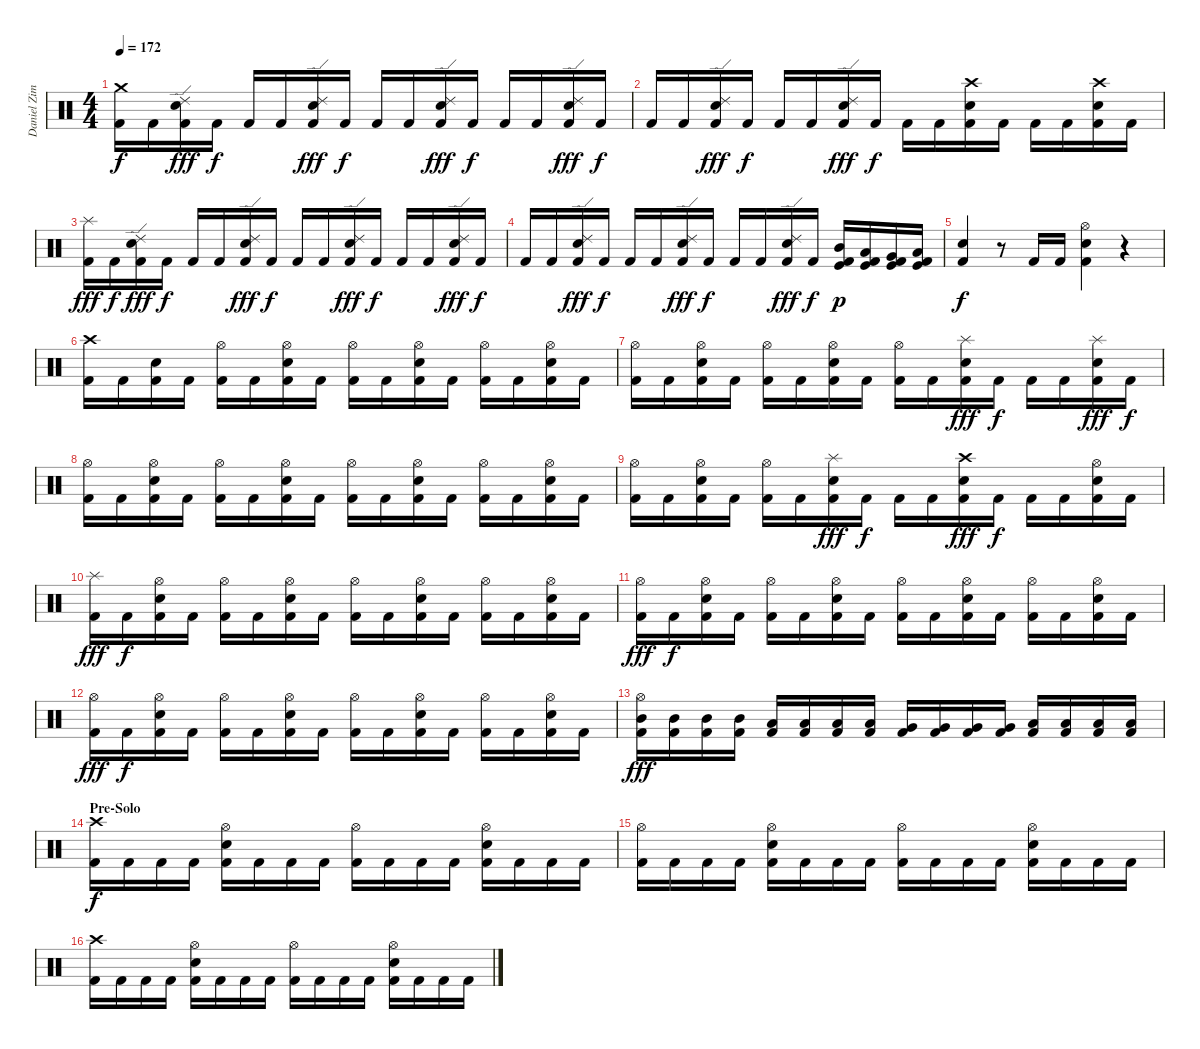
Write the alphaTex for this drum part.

\track ("Daniel Zimmermann - Drums" "Daniel Zim") {instrument percussion}
\staff {score}
\articulation defaults
\ts (4 4)
\tempo 172
\clef neutral
\ks c
("Kick (hit) 2" "Crash medium (hit)").16{dy f} "Kick (hit) 2".16 ("Kick (hit) 2" "Electric Snare (hit)" "Ride (edge) 2").16{dy fff} "Kick (hit) 2".16{dy f} "Kick (hit) 2".16 "Kick (hit) 2".16 ("Kick (hit) 2" "Electric Snare (hit)" "Ride (edge) 2").16{dy fff} "Kick (hit) 2".16{dy f} "Kick (hit) 2".16 "Kick (hit) 2".16 ("Kick (hit) 2" "Electric Snare (hit)" "Ride (edge) 2").16{dy fff} "Kick (hit) 2".16{dy f} "Kick (hit) 2".16 "Kick (hit) 2".16 ("Kick (hit) 2" "Electric Snare (hit)" "Ride (edge) 2").16{dy fff} "Kick (hit) 2".16{dy f} |
"Kick (hit) 2".16 "Kick (hit) 2".16 ("Kick (hit) 2" "Electric Snare (hit)" "Ride (edge) 2").16{dy fff} "Kick (hit) 2".16{dy f} "Kick (hit) 2".16 "Kick (hit) 2".16 ("Kick (hit) 2" "Electric Snare (hit)" "Ride (edge) 2").16{dy fff} "Kick (hit) 2".16{dy f} "Kick (hit) 2".16 "Kick (hit) 2".16 ("Kick (hit) 2" "Electric Snare (hit)" "Crash high (hit)").16 "Kick (hit) 2".16 "Kick (hit) 2".16 "Kick (hit) 2".16 ("Kick (hit) 2" "Electric Snare (hit)" "Crash high (hit)").16 "Kick (hit) 2".16 |
("Kick (hit) 2" "Splash (hit)").16{dy fff} "Kick (hit) 2".16{dy f} ("Kick (hit) 2" "Electric Snare (hit)" "Ride (edge) 2").16{dy fff} "Kick (hit) 2".16{dy f} "Kick (hit) 2".16 "Kick (hit) 2".16 ("Kick (hit) 2" "Electric Snare (hit)" "Ride (edge) 2").16{dy fff} "Kick (hit) 2".16{dy f} "Kick (hit) 2".16 "Kick (hit) 2".16 ("Kick (hit) 2" "Electric Snare (hit)" "Ride (edge) 2").16{dy fff} "Kick (hit) 2".16{dy f} "Kick (hit) 2".16 "Kick (hit) 2".16 ("Kick (hit) 2" "Electric Snare (hit)" "Ride (edge) 2").16{dy fff} "Kick (hit) 2".16{dy f} |
"Kick (hit) 2".16 "Kick (hit) 2".16 ("Kick (hit) 2" "Electric Snare (hit)" "Ride (edge) 2").16{dy fff} "Kick (hit) 2".16{dy f} "Kick (hit) 2".16 "Kick (hit) 2".16 ("Kick (hit) 2" "Electric Snare (hit)" "Ride (edge) 2").16{dy fff} "Kick (hit) 2".16{dy f} "Kick (hit) 2".16 "Kick (hit) 2".16 ("Kick (hit) 2" "Electric Snare (hit)" "Ride (edge) 2").16{dy fff} "Kick (hit) 2".16{dy f} ("Kick (hit) 2" "Kick (hit)" "Mid Tom (hit)").16{dy p} ("Kick (hit) 2" "Kick (hit)" "Low Tom (hit)").16 ("Kick (hit) 2" "Kick (hit)" "Very Low Tom (hit)").16 ("Kick (hit) 2" "Kick (hit)" "Low Floor Tom (hit)").16 |
("Kick (hit) 2" "Electric Snare (hit)").4{dy f} r.8 "Kick (hit) 2".16 "Kick (hit) 2".16 ("Kick (hit) 2" "Electric Snare (hit)" "Hi-Hat (open)").4 r.4 |
("Kick (hit) 2" "Crash high (hit)").16 "Kick (hit) 2".16 ("Kick (hit) 2" "Electric Snare (hit)").16 "Kick (hit) 2".16 ("Kick (hit) 2" "Hi-Hat (open)").16 "Kick (hit) 2".16 ("Kick (hit) 2" "Electric Snare (hit)" "Hi-Hat (open)").16 "Kick (hit) 2".16 ("Kick (hit) 2" "Hi-Hat (open)").16 "Kick (hit) 2".16 ("Kick (hit) 2" "Electric Snare (hit)" "Hi-Hat (open)").16 "Kick (hit) 2".16 ("Kick (hit) 2" "Hi-Hat (open)").16 "Kick (hit) 2".16 ("Kick (hit) 2" "Electric Snare (hit)" "Hi-Hat (open)").16 "Kick (hit) 2".16 |
("Kick (hit) 2" "Hi-Hat (open)").16 "Kick (hit) 2".16 ("Kick (hit) 2" "Electric Snare (hit)" "Hi-Hat (open)").16 "Kick (hit) 2".16 ("Kick (hit) 2" "Hi-Hat (open)").16 "Kick (hit) 2".16 ("Kick (hit) 2" "Electric Snare (hit)" "Hi-Hat (open)").16 "Kick (hit) 2".16 ("Kick (hit) 2" "Hi-Hat (open)").16 "Kick (hit) 2".16 ("Kick (hit) 2" "Electric Snare (hit)" "Splash (hit)").16{dy fff} "Kick (hit) 2".16{dy f} "Kick (hit) 2".16 "Kick (hit) 2".16 ("Kick (hit) 2" "Electric Snare (hit)" "Splash (hit)").16{dy fff} "Kick (hit) 2".16{dy f} |
("Kick (hit) 2" "Hi-Hat (open)").16 "Kick (hit) 2".16 ("Kick (hit) 2" "Electric Snare (hit)" "Hi-Hat (open)").16 "Kick (hit) 2".16 ("Kick (hit) 2" "Hi-Hat (open)").16 "Kick (hit) 2".16 ("Kick (hit) 2" "Electric Snare (hit)" "Hi-Hat (open)").16 "Kick (hit) 2".16 ("Kick (hit) 2" "Hi-Hat (open)").16 "Kick (hit) 2".16 ("Kick (hit) 2" "Electric Snare (hit)" "Hi-Hat (open)").16 "Kick (hit) 2".16 ("Kick (hit) 2" "Hi-Hat (open)").16 "Kick (hit) 2".16 ("Kick (hit) 2" "Electric Snare (hit)" "Hi-Hat (open)").16 "Kick (hit) 2".16 |
("Kick (hit) 2" "Hi-Hat (open)").16 "Kick (hit) 2".16 ("Kick (hit) 2" "Electric Snare (hit)" "Hi-Hat (open)").16 "Kick (hit) 2".16 ("Kick (hit) 2" "Hi-Hat (open)").16 "Kick (hit) 2".16 ("Kick (hit) 2" "Electric Snare (hit)" "Splash (hit)").16{dy fff} "Kick (hit) 2".16{dy f} "Kick (hit) 2".16 "Kick (hit) 2".16 ("Kick (hit) 2" "Electric Snare (hit)" "Crash high (hit)").16{dy fff} "Kick (hit) 2".16{dy f} "Kick (hit) 2".16 "Kick (hit) 2".16 ("Kick (hit) 2" "Electric Snare (hit)" "Hi-Hat (open)").16 "Kick (hit) 2".16 |
("Kick (hit) 2" "Splash (hit)").16{dy fff} "Kick (hit) 2".16{dy f} ("Kick (hit) 2" "Electric Snare (hit)" "Hi-Hat (open)").16 "Kick (hit) 2".16 ("Kick (hit) 2" "Hi-Hat (open)").16 "Kick (hit) 2".16 ("Kick (hit) 2" "Electric Snare (hit)" "Hi-Hat (open)").16 "Kick (hit) 2".16 ("Kick (hit) 2" "Hi-Hat (open)").16 "Kick (hit) 2".16 ("Kick (hit) 2" "Electric Snare (hit)" "Hi-Hat (open)").16 "Kick (hit) 2".16 ("Kick (hit) 2" "Hi-Hat (open)").16 "Kick (hit) 2".16 ("Kick (hit) 2" "Electric Snare (hit)" "Hi-Hat (open)").16 "Kick (hit) 2".16 |
("Kick (hit) 2" "Hi-Hat (open)").16{dy fff} "Kick (hit) 2".16{dy f} ("Kick (hit) 2" "Electric Snare (hit)" "Hi-Hat (open)").16 "Kick (hit) 2".16 ("Kick (hit) 2" "Hi-Hat (open)").16 "Kick (hit) 2".16 ("Kick (hit) 2" "Electric Snare (hit)" "Hi-Hat (open)").16 "Kick (hit) 2".16 ("Kick (hit) 2" "Hi-Hat (open)").16 "Kick (hit) 2".16 ("Kick (hit) 2" "Electric Snare (hit)" "Hi-Hat (open)").16 "Kick (hit) 2".16 ("Kick (hit) 2" "Hi-Hat (open)").16 "Kick (hit) 2".16 ("Kick (hit) 2" "Electric Snare (hit)" "Hi-Hat (open)").16 "Kick (hit) 2".16 |
("Kick (hit) 2" "Hi-Hat (open)").16{dy fff} "Kick (hit) 2".16{dy f} ("Kick (hit) 2" "Electric Snare (hit)" "Hi-Hat (open)").16 "Kick (hit) 2".16 ("Kick (hit) 2" "Hi-Hat (open)").16 "Kick (hit) 2".16 ("Kick (hit) 2" "Electric Snare (hit)" "Hi-Hat (open)").16 "Kick (hit) 2".16 ("Kick (hit) 2" "Hi-Hat (open)").16 "Kick (hit) 2".16 ("Kick (hit) 2" "Electric Snare (hit)" "Hi-Hat (open)").16 "Kick (hit) 2".16 ("Kick (hit) 2" "Hi-Hat (open)").16 "Kick (hit) 2".16 ("Kick (hit) 2" "Electric Snare (hit)" "Hi-Hat (open)").16 "Kick (hit) 2".16 |
("Kick (hit) 2" "Mid Tom (hit)" "Hi-Hat (open)").16{dy fff} ("Kick (hit) 2" "Mid Tom (hit)").16 ("Kick (hit) 2" "Mid Tom (hit)").16 ("Kick (hit) 2" "Mid Tom (hit)").16 ("Kick (hit) 2" "Low Tom (hit)").16 ("Kick (hit) 2" "Low Tom (hit)").16 ("Kick (hit) 2" "Low Tom (hit)").16 ("Kick (hit) 2" "Low Tom (hit)").16 ("Kick (hit) 2" "Very Low Tom (hit)").16 ("Kick (hit) 2" "Very Low Tom (hit)").16 ("Kick (hit) 2" "Very Low Tom (hit)").16 ("Kick (hit) 2" "Very Low Tom (hit)").16 ("Kick (hit) 2" "Low Floor Tom (hit)").16 ("Kick (hit) 2" "Low Floor Tom (hit)").16 ("Kick (hit) 2" "Low Floor Tom (hit)").16 ("Kick (hit) 2" "Low Floor Tom (hit)").16 |
\section ("" "Pre-Solo")
("Kick (hit) 2" "Crash high (hit)").16{dy f} "Kick (hit) 2".16 "Kick (hit) 2".16 "Kick (hit) 2".16 ("Kick (hit) 2" "Electric Snare (hit)" "Hi-Hat (open)").16 "Kick (hit) 2".16 "Kick (hit) 2".16 "Kick (hit) 2".16 ("Kick (hit) 2" "Hi-Hat (open)").16 "Kick (hit) 2".16 "Kick (hit) 2".16 "Kick (hit) 2".16 ("Kick (hit) 2" "Electric Snare (hit)" "Hi-Hat (open)").16 "Kick (hit) 2".16 "Kick (hit) 2".16 "Kick (hit) 2".16 |
("Kick (hit) 2" "Hi-Hat (open)").16 "Kick (hit) 2".16 "Kick (hit) 2".16 "Kick (hit) 2".16 ("Kick (hit) 2" "Electric Snare (hit)" "Hi-Hat (open)").16 "Kick (hit) 2".16 "Kick (hit) 2".16 "Kick (hit) 2".16 ("Kick (hit) 2" "Hi-Hat (open)").16 "Kick (hit) 2".16 "Kick (hit) 2".16 "Kick (hit) 2".16 ("Kick (hit) 2" "Electric Snare (hit)" "Hi-Hat (open)").16 "Kick (hit) 2".16 "Kick (hit) 2".16 "Kick (hit) 2".16 |
("Kick (hit) 2" "Crash high (hit)").16 "Kick (hit) 2".16 "Kick (hit) 2".16 "Kick (hit) 2".16 ("Kick (hit) 2" "Electric Snare (hit)" "Hi-Hat (open)").16 "Kick (hit) 2".16 "Kick (hit) 2".16 "Kick (hit) 2".16 ("Kick (hit) 2" "Hi-Hat (open)").16 "Kick (hit) 2".16 "Kick (hit) 2".16 "Kick (hit) 2".16 ("Kick (hit) 2" "Electric Snare (hit)" "Hi-Hat (open)").16 "Kick (hit) 2".16 "Kick (hit) 2".16 "Kick (hit) 2".16
